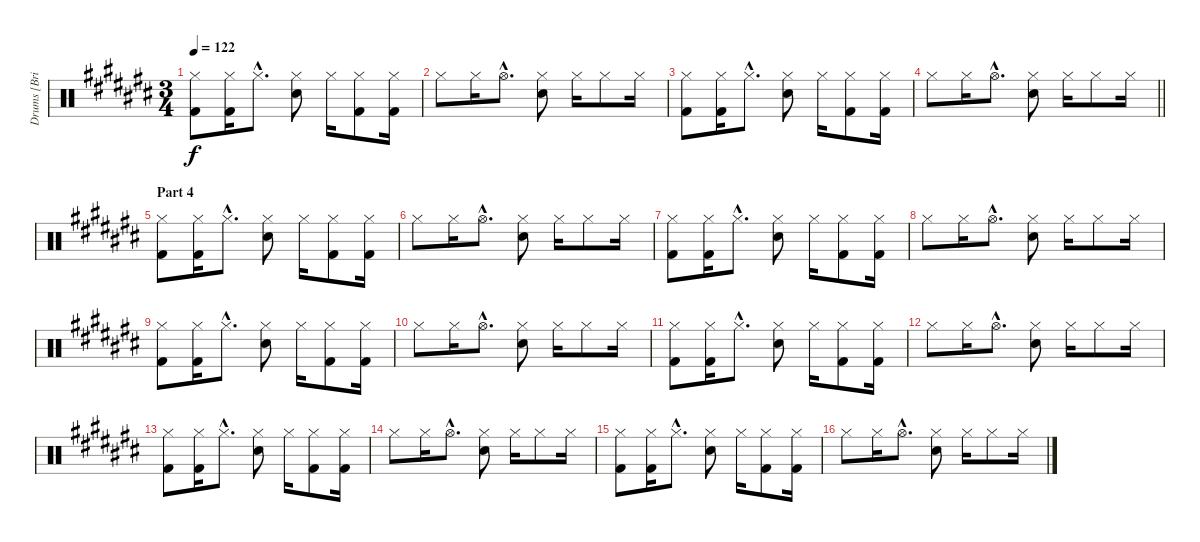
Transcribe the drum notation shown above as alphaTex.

\track ("Drums [Brian \"Brain\" Mantia]" "Drums [Bri") {instrument percussion}
\staff {score}
\articulation defaults
\ts (3 4)
\tempo 122
\clef neutral
\ks c#
("Hi-Hat (closed)" "Kick (hit) 2").8{dy f} ("Hi-Hat (closed)" "Kick (hit) 2").16 "Hi-Hat (closed)"{hac}.8{d} ("Hi-Hat (closed)" "Electric Snare (hit)").8 "Hi-Hat (closed)".16 ("Hi-Hat (closed)" "Kick (hit) 2").8 ("Hi-Hat (closed)" "Kick (hit) 2").16 |
"Hi-Hat (closed)".8 "Hi-Hat (closed)".16 "Hi-Hat (open)"{hac}.8{d} ("Hi-Hat (closed)" "Electric Snare (hit)").8 "Hi-Hat (closed)".16 "Hi-Hat (closed)".8 "Hi-Hat (closed)".16 |
("Hi-Hat (closed)" "Kick (hit) 2").8 ("Hi-Hat (closed)" "Kick (hit) 2").16 "Hi-Hat (closed)"{hac}.8{d} ("Hi-Hat (closed)" "Electric Snare (hit)").8 "Hi-Hat (closed)".16 ("Hi-Hat (closed)" "Kick (hit) 2").8 ("Hi-Hat (closed)" "Kick (hit) 2").16 |
\barLineRight lightlight "Hi-Hat (closed)".8 "Hi-Hat (closed)".16 "Hi-Hat (open)"{hac}.8{d}
("Hi-Hat (closed)" "Electric Snare (hit)").8 "Hi-Hat (closed)".16 "Hi-Hat (closed)".8 "Hi-Hat (closed)".16 |
\section ("" "Part 4")
("Hi-Hat (closed)" "Kick (hit) 2").8 ("Hi-Hat (closed)" "Kick (hit) 2").16 "Hi-Hat (closed)"{hac}.8{d} ("Hi-Hat (closed)" "Electric Snare (hit)").8 "Hi-Hat (closed)".16 ("Hi-Hat (closed)" "Kick (hit) 2").8 ("Hi-Hat (closed)" "Kick (hit) 2").16 |
"Hi-Hat (closed)".8 "Hi-Hat (closed)".16 "Hi-Hat (open)"{hac}.8{d} ("Hi-Hat (closed)" "Electric Snare (hit)").8 "Hi-Hat (closed)".16 "Hi-Hat (closed)".8 "Hi-Hat (closed)".16 |
("Hi-Hat (closed)" "Kick (hit) 2").8 ("Hi-Hat (closed)" "Kick (hit) 2").16 "Hi-Hat (closed)"{hac}.8{d} ("Hi-Hat (closed)" "Electric Snare (hit)").8 "Hi-Hat (closed)".16 ("Hi-Hat (closed)" "Kick (hit) 2").8 ("Hi-Hat (closed)" "Kick (hit) 2").16 |
"Hi-Hat (closed)".8 "Hi-Hat (closed)".16 "Hi-Hat (open)"{hac}.8{d} ("Hi-Hat (closed)" "Electric Snare (hit)").8 "Hi-Hat (closed)".16 "Hi-Hat (closed)".8 "Hi-Hat (closed)".16 |
("Hi-Hat (closed)" "Kick (hit) 2").8 ("Hi-Hat (closed)" "Kick (hit) 2").16 "Hi-Hat (closed)"{hac}.8{d} ("Hi-Hat (closed)" "Electric Snare (hit)").8 "Hi-Hat (closed)".16 ("Hi-Hat (closed)" "Kick (hit) 2").8 ("Hi-Hat (closed)" "Kick (hit) 2").16 |
"Hi-Hat (closed)".8 "Hi-Hat (closed)".16 "Hi-Hat (open)"{hac}.8{d} ("Hi-Hat (closed)" "Electric Snare (hit)").8 "Hi-Hat (closed)".16 "Hi-Hat (closed)".8 "Hi-Hat (closed)".16 |
("Hi-Hat (closed)" "Kick (hit) 2").8 ("Hi-Hat (closed)" "Kick (hit) 2").16 "Hi-Hat (closed)"{hac}.8{d} ("Hi-Hat (closed)" "Electric Snare (hit)").8 "Hi-Hat (closed)".16 ("Hi-Hat (closed)" "Kick (hit) 2").8 ("Hi-Hat (closed)" "Kick (hit) 2").16 |
"Hi-Hat (closed)".8 "Hi-Hat (closed)".16 "Hi-Hat (open)"{hac}.8{d} ("Hi-Hat (closed)" "Electric Snare (hit)").8 "Hi-Hat (closed)".16 "Hi-Hat (closed)".8 "Hi-Hat (closed)".16 |
("Hi-Hat (closed)" "Kick (hit) 2").8 ("Hi-Hat (closed)" "Kick (hit) 2").16 "Hi-Hat (closed)"{hac}.8{d} ("Hi-Hat (closed)" "Electric Snare (hit)").8 "Hi-Hat (closed)".16 ("Hi-Hat (closed)" "Kick (hit) 2").8 ("Hi-Hat (closed)" "Kick (hit) 2").16 |
"Hi-Hat (closed)".8 "Hi-Hat (closed)".16 "Hi-Hat (open)"{hac}.8{d} ("Hi-Hat (closed)" "Electric Snare (hit)").8 "Hi-Hat (closed)".16 "Hi-Hat (closed)".8 "Hi-Hat (closed)".16 |
("Hi-Hat (closed)" "Kick (hit) 2").8 ("Hi-Hat (closed)" "Kick (hit) 2").16 "Hi-Hat (closed)"{hac}.8{d} ("Hi-Hat (closed)" "Electric Snare (hit)").8 "Hi-Hat (closed)".16 ("Hi-Hat (closed)" "Kick (hit) 2").8 ("Hi-Hat (closed)" "Kick (hit) 2").16 |
"Hi-Hat (closed)".8 "Hi-Hat (closed)".16 "Hi-Hat (open)"{hac}.8{d} ("Hi-Hat (closed)" "Electric Snare (hit)").8 "Hi-Hat (closed)".16 "Hi-Hat (closed)".8 "Hi-Hat (closed)".16
